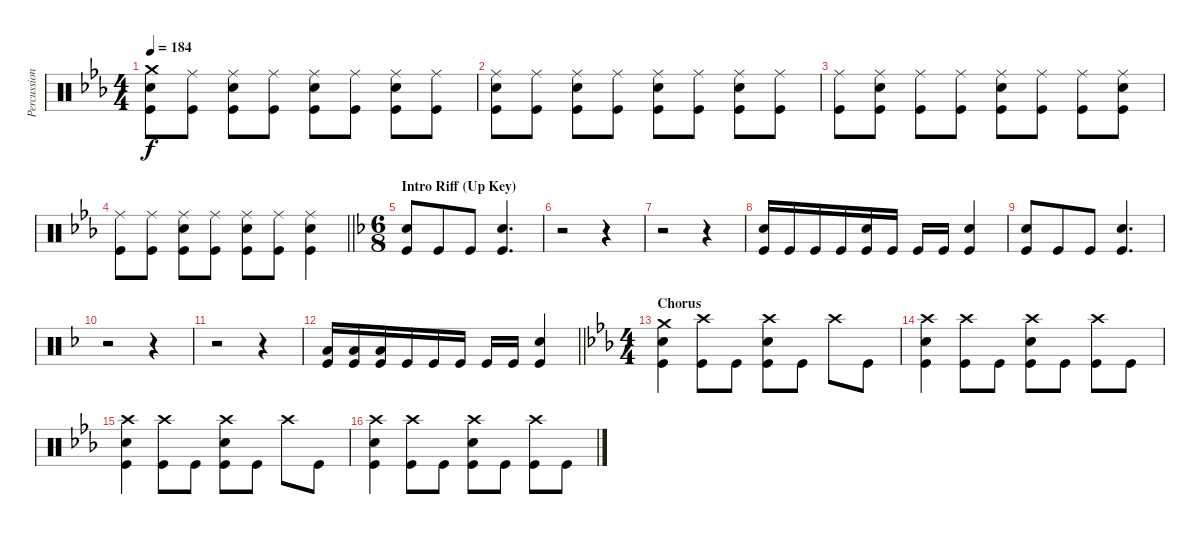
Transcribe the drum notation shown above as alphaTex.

\track ("Percussion" "Percussion") {instrument percussion}
\staff {score}
\articulation defaults
\ts (4 4)
\tempo 184
\clef neutral
\ks eb
("Crash medium (hit)" "Electric Snare (hit)" "Kick (hit)").8{dy f} ("Ride (middle)" "Kick (hit)").8 ("Ride (middle)" "Electric Snare (hit)" "Kick (hit)").8 ("Ride (middle)" "Kick (hit)").8 ("Ride (middle)" "Electric Snare (hit)" "Kick (hit)").8 ("Ride (middle)" "Kick (hit)").8 ("Ride (middle)" "Electric Snare (hit)" "Kick (hit)").8 ("Ride (middle)" "Kick (hit)").8 |
("Ride (middle)" "Electric Snare (hit)" "Kick (hit)").8 ("Ride (middle)" "Kick (hit)").8 ("Ride (middle)" "Electric Snare (hit)" "Kick (hit)").8 ("Ride (middle)" "Kick (hit)").8 ("Ride (middle)" "Electric Snare (hit)" "Kick (hit)").8 ("Ride (middle)" "Kick (hit)").8 ("Ride (middle)" "Electric Snare (hit)" "Kick (hit)").8 ("Ride (middle)" "Kick (hit)").8 |
("Ride (middle)" "Kick (hit)").8 ("Ride (middle)" "Electric Snare (hit)" "Kick (hit)").8 ("Ride (middle)" "Kick (hit)").8 ("Ride (middle)" "Kick (hit)").8 ("Ride (middle)" "Electric Snare (hit)" "Kick (hit)").8 ("Ride (middle)" "Kick (hit)").8 ("Ride (middle)" "Kick (hit)").8 ("Ride (middle)" "Electric Snare (hit)" "Kick (hit)").8 |
\barLineRight lightlight
("Ride (middle)" "Kick (hit)").8 ("Ride (middle)" "Kick (hit)").8 ("Ride (middle)" "Electric Snare (hit)" "Kick (hit)").8 ("Ride (middle)" "Kick (hit)").8 ("Ride (middle)" "Electric Snare (hit)" "Kick (hit)").8 ("Ride (middle)" "Kick (hit)").8 ("Ride (middle)" "Electric Snare (hit)" "Kick (hit)").4 |
\ts (6 8)
\section ("" "Intro Riff (Up Key)")
\ks f
("Electric Snare (hit)" "Kick (hit)").8 "Kick (hit)".8 "Kick (hit)".8 ("Electric Snare (hit)" "Kick (hit)").4{d} |
r.2 r.4 |
r.2 r.4 |
("Electric Snare (hit)" "Kick (hit)").16 "Kick (hit)".16 "Kick (hit)".16 "Kick (hit)".16 ("Electric Snare (hit)" "Kick (hit)").16 "Kick (hit)".16 "Kick (hit)".16 "Kick (hit)".16 ("Electric Snare (hit)" "Kick (hit)").4 |
("Electric Snare (hit)" "Kick (hit)").8 "Kick (hit)".8 "Kick (hit)".8 ("Electric Snare (hit)" "Kick (hit)").4{d} |
r.2 r.4 |
r.2 r.4 |
\barLineRight lightlight
("Low Tom (hit)" "Kick (hit)").16 ("Low Tom (hit)" "Kick (hit)").16 ("Low Tom (hit)" "Kick (hit)").16 "Kick (hit)".16 "Kick (hit)".16 "Kick (hit)".16 "Kick (hit)".16 "Kick (hit)".16 ("Electric Snare (hit)" "Kick (hit)").4 |
\ts (4 4)
\section ("" "Chorus")
\ks eb
("Crash medium (hit)" "Electric Snare (hit)" "Kick (hit)").4 ("Crash high (hit)" "Kick (hit)").8 "Kick (hit)".8 ("Crash high (hit)" "Electric Snare (hit)" "Kick (hit)").8 "Kick (hit)".8 "Crash high (hit)".8 "Kick (hit)".8 |
("Crash high (hit)" "Electric Snare (hit)" "Kick (hit)").4 ("Crash high (hit)" "Kick (hit)").8 "Kick (hit)".8 ("Crash high (hit)" "Electric Snare (hit)" "Kick (hit)").8 "Kick (hit)".8 ("Crash high (hit)" "Kick (hit)").8 "Kick (hit)".8 |
("Crash high (hit)" "Electric Snare (hit)" "Kick (hit)").4 ("Crash high (hit)" "Kick (hit)").8 "Kick (hit)".8 ("Crash high (hit)" "Electric Snare (hit)" "Kick (hit)").8 "Kick (hit)".8 "Crash high (hit)".8 "Kick (hit)".8 |
("Crash high (hit)" "Electric Snare (hit)" "Kick (hit)").4 ("Crash high (hit)" "Kick (hit)").8 "Kick (hit)".8 ("Crash high (hit)" "Electric Snare (hit)" "Kick (hit)").8 "Kick (hit)".8 ("Crash high (hit)" "Kick (hit)").8 "Kick (hit)".8
